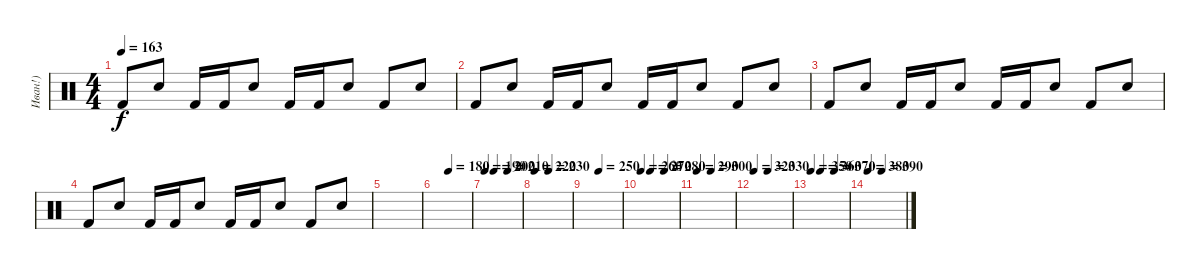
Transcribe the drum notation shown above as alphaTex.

\track ("Иван!)" "Иван!)") {instrument percussion}
\staff {score}
\articulation defaults
\ts (4 4)
\tempo 163
\clef neutral
\ks c "Kick (hit) 2".8{dy f} "Electric Snare (hit)".8 "Kick (hit) 2".16 "Kick (hit) 2".16 "Electric Snare (hit)".8 "Kick (hit) 2".16 "Kick (hit) 2".16 "Electric Snare (hit)".8 "Kick (hit) 2".8 "Electric Snare (hit)".8
|
"Kick (hit) 2".8 "Electric Snare (hit)".8 "Kick (hit) 2".16 "Kick (hit) 2".16 "Electric Snare (hit)".8 "Kick (hit) 2".16 "Kick (hit) 2".16 "Electric Snare (hit)".8 "Kick (hit) 2".8 "Electric Snare (hit)".8 |
"Kick (hit) 2".8 "Electric Snare (hit)".8 "Kick (hit) 2".16 "Kick (hit) 2".16 "Electric Snare (hit)".8 "Kick (hit) 2".16 "Kick (hit) 2".16 "Electric Snare (hit)".8 "Kick (hit) 2".8 "Electric Snare (hit)".8 |
"Kick (hit) 2".8 "Electric Snare (hit)".8 "Kick (hit) 2".16 "Kick (hit) 2".16 "Electric Snare (hit)".8 "Kick (hit) 2".16 "Kick (hit) 2".16 "Electric Snare (hit)".8 "Kick (hit) 2".8 "Electric Snare (hit)".8 |
|
\tempo (180 0.375)
|
\tempo 190
\tempo (200 0.25)
\tempo (210 0.625)
|
\tempo 220
\tempo (230 0.375)
|
\tempo (250 0.375)
|
\tempo 260
\tempo (270 0.25)
\tempo (280 0.625)
|
\tempo 290
\tempo (300 0.375)
|
\tempo 320
\tempo (330 0.375)
|
\tempo 350
\tempo (360 0.25)
\tempo (370 0.625)
|
\tempo 380
\tempo (390 0.375)
